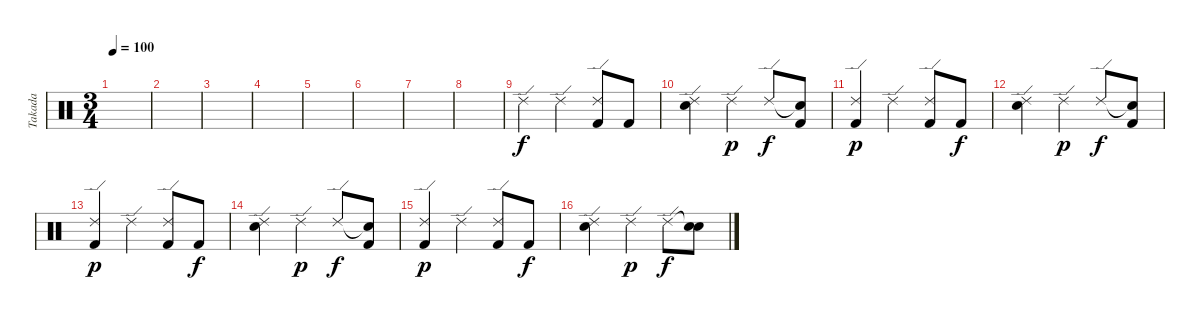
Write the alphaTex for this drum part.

\track ("Takada" "Takada") {instrument percussion}
\staff {score}
\articulation defaults
\ts (3 4)
\tempo 100
\clef neutral
\ks c
|
|
|
|
|
|
|
|
"Ride (edge) 2".4 "Ride (edge) 2".4 ("Ride (edge) 2" "Kick (hit) 2").8 "Kick (hit) 2".8{dy f} |
("Ride (edge) 2" "Electric Snare (hit)").4 "Ride (edge) 2".4{dy p} "Ride (edge) 2".8{dy f} ("Snare (hit)"{t} "Kick (hit) 2").8 |
("Ride (edge) 2" "Kick (hit) 2").4{dy p} "Ride (edge) 2".4 ("Ride (edge) 2" "Kick (hit) 2").8 "Kick (hit) 2".8{dy f} |
("Ride (edge) 2" "Electric Snare (hit)").4 "Ride (edge) 2".4{dy p} "Ride (edge) 2".8{dy f} ("Snare (hit)"{t} "Kick (hit) 2").8 |
("Ride (edge) 2" "Kick (hit) 2").4{dy p} "Ride (edge) 2".4 ("Ride (edge) 2" "Kick (hit) 2").8 "Kick (hit) 2".8{dy f} |
("Ride (edge) 2" "Electric Snare (hit)").4 "Ride (edge) 2".4{dy p} "Ride (edge) 2".8{dy f} ("Snare (hit)"{t} "Kick (hit) 2").8 |
("Ride (edge) 2" "Kick (hit) 2").4{dy p} "Ride (edge) 2".4 ("Ride (edge) 2" "Kick (hit) 2").8 "Kick (hit) 2".8{dy f} |
("Ride (edge) 2" "Electric Snare (hit)").4 "Ride (edge) 2".4{dy p} "Ride (edge) 2".8{dy f} ("Snare (hit)"{t} "Electric Snare (hit)").8
